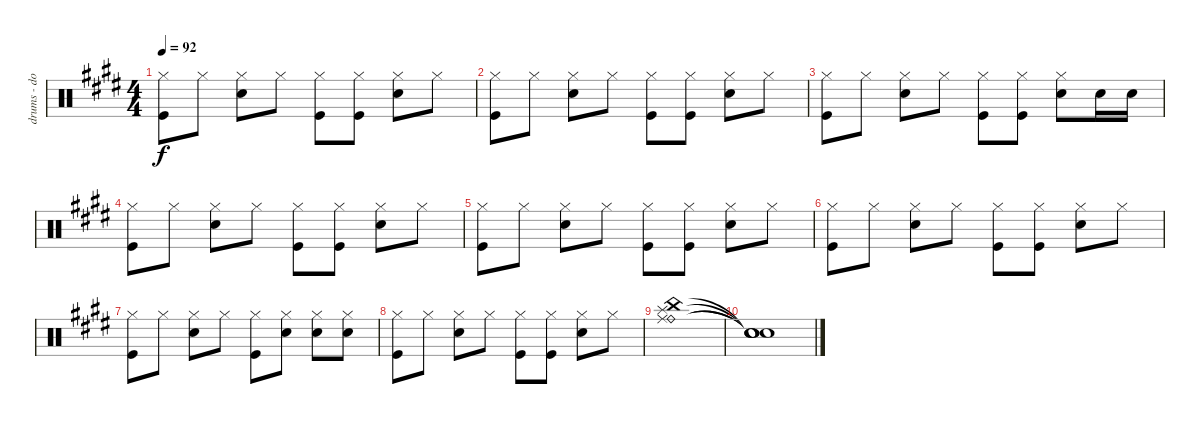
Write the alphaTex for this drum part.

\track ("drums - dodgy" "drums - do") {instrument percussion}
\staff {score}
\articulation defaults
\ts (4 4)
\tempo 92
\clef neutral
\ks e
("Hi-Hat (closed)" "Kick (hit)").8{dy f} "Hi-Hat (closed)".8 ("Hi-Hat (closed)" "Snare (hit) 2").8 "Hi-Hat (closed)".8 ("Hi-Hat (closed)" "Kick (hit)").8 ("Hi-Hat (closed)" "Kick (hit)").8 ("Hi-Hat (closed)" "Snare (hit) 2").8 "Hi-Hat (closed)".8 |
("Hi-Hat (closed)" "Kick (hit)").8 "Hi-Hat (closed)".8 ("Hi-Hat (closed)" "Snare (hit) 2").8 "Hi-Hat (closed)".8 ("Hi-Hat (closed)" "Kick (hit)").8 ("Hi-Hat (closed)" "Kick (hit)").8 ("Hi-Hat (closed)" "Snare (hit) 2").8 "Hi-Hat (closed)".8 |
("Hi-Hat (closed)" "Kick (hit)").8 "Hi-Hat (closed)".8 ("Hi-Hat (closed)" "Snare (hit) 2").8 "Hi-Hat (closed)".8 ("Hi-Hat (closed)" "Kick (hit)").8 ("Hi-Hat (closed)" "Kick (hit)").8 ("Hi-Hat (closed)" "Snare (hit) 2").8 "Snare (hit) 2".16 "Snare (hit) 2".16 |
("Hi-Hat (closed)" "Kick (hit)").8 "Hi-Hat (closed)".8 ("Hi-Hat (closed)" "Snare (hit) 2").8 "Hi-Hat (closed)".8 ("Hi-Hat (closed)" "Kick (hit)").8 ("Hi-Hat (closed)" "Kick (hit)").8 ("Hi-Hat (closed)" "Snare (hit) 2").8 "Hi-Hat (closed)".8 |
("Hi-Hat (closed)" "Kick (hit)").8 "Hi-Hat (closed)".8 ("Hi-Hat (closed)" "Snare (hit) 2").8 "Hi-Hat (closed)".8 ("Hi-Hat (closed)" "Kick (hit)").8 ("Hi-Hat (closed)" "Kick (hit)").8 ("Hi-Hat (closed)" "Snare (hit) 2").8 "Hi-Hat (closed)".8 |
("Hi-Hat (closed)" "Kick (hit)").8 "Hi-Hat (closed)".8 ("Hi-Hat (closed)" "Snare (hit) 2").8 "Hi-Hat (closed)".8 ("Hi-Hat (closed)" "Kick (hit)").8 ("Hi-Hat (closed)" "Kick (hit)").8 ("Hi-Hat (closed)" "Snare (hit) 2").8 "Hi-Hat (closed)".8 |
("Hi-Hat (closed)" "Kick (hit)").8 "Hi-Hat (closed)".8 ("Hi-Hat (closed)" "Snare (hit) 2").8 "Hi-Hat (closed)".8 ("Hi-Hat (closed)" "Kick (hit)").8 ("Hi-Hat (closed)" "Snare (hit) 2").8 ("Hi-Hat (closed)" "Snare (hit) 2").8 ("Hi-Hat (closed)" "Snare (hit) 2").8 |
("Hi-Hat (closed)" "Kick (hit)").8 "Hi-Hat (closed)".8 ("Hi-Hat (closed)" "Snare (hit) 2").8 "Hi-Hat (closed)".8 ("Hi-Hat (closed)" "Kick (hit)").8 ("Hi-Hat (closed)" "Kick (hit)").8 ("Hi-Hat (closed)" "Snare (hit) 2").8 "Hi-Hat (closed)".8 |
("Ride (bell)" "Splash (hit)" "China (hit)" "Ride (middle)").1 |
("Snare (hit)"{t} "Snare (hit)"{t} "Snare (hit)"{t} "Snare (hit)"{t}).1
